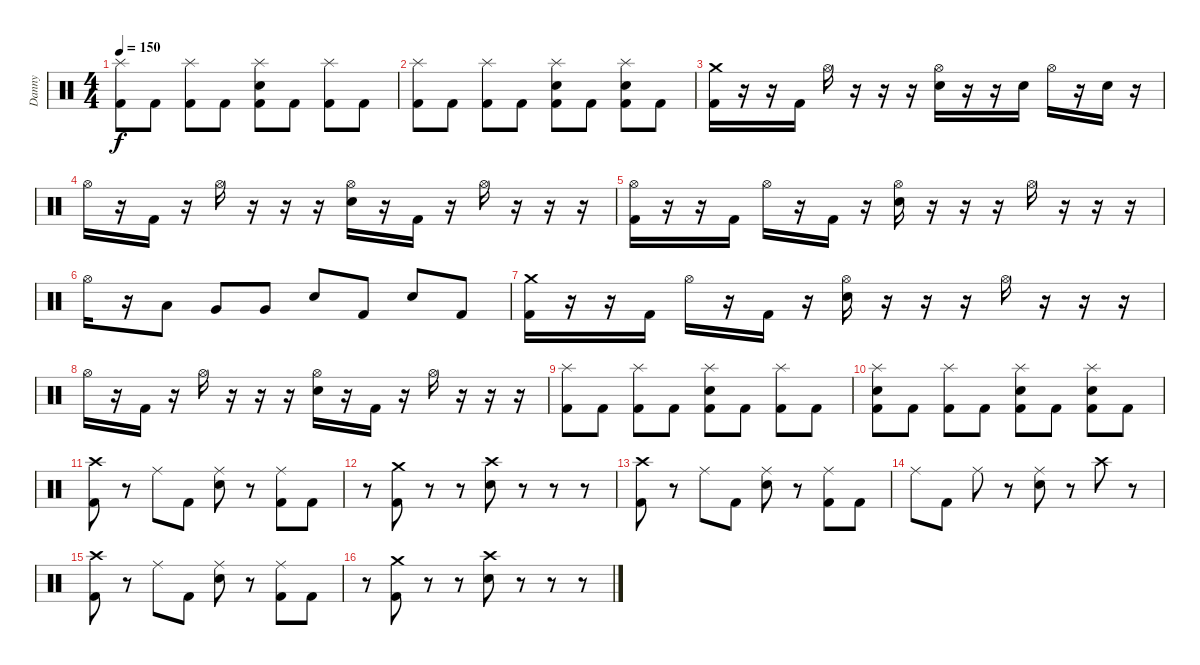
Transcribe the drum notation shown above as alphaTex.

\track ("Danny" "Danny") {instrument percussion}
\staff {score}
\articulation defaults
\ts (4 4)
\tempo 150
\clef neutral
\ks c
("Splash (hit)" "Kick (hit) 2").8{dy f} "Kick (hit) 2".8 ("Splash (hit)" "Kick (hit) 2").8 "Kick (hit) 2".8 ("Splash (hit)" "Electric Snare (hit)" "Kick (hit) 2").8 "Kick (hit) 2".8 ("Splash (hit)" "Kick (hit) 2").8 "Kick (hit) 2".8 |
("Splash (hit)" "Kick (hit) 2").8 "Kick (hit) 2".8 ("Splash (hit)" "Kick (hit) 2").8 "Kick (hit) 2".8 ("Splash (hit)" "Electric Snare (hit)" "Kick (hit) 2").8 "Kick (hit) 2".8 ("Splash (hit)" "Electric Snare (hit)" "Kick (hit) 2").8 "Kick (hit) 2".8 |
("Crash medium (hit)" "Kick (hit) 2").16 r.16 r.16 "Kick (hit) 2".16 "Hi-Hat (open)".16 r.16 r.16 r.16 ("Hi-Hat (open)" "Electric Snare (hit)").16 r.16 r.16 "Electric Snare (hit)".16 "Hi-Hat (open)".16 r.16 "Electric Snare (hit)".16 r.16 |
"Hi-Hat (open)".16 r.16 "Kick (hit) 2".16 r.16 "Hi-Hat (open)".16 r.16 r.16 r.16 ("Hi-Hat (open)" "Electric Snare (hit)").16 r.16 "Kick (hit) 2".16 r.16 "Hi-Hat (open)".16 r.16 r.16 r.16 |
("Hi-Hat (open)" "Kick (hit) 2").16 r.16 r.16 "Kick (hit) 2".16 "Hi-Hat (open)".16 r.16 "Kick (hit) 2".16 r.16 ("Hi-Hat (open)" "Electric Snare (hit)").16 r.16 r.16 r.16 "Hi-Hat (open)".16 r.16 r.16 r.16 |
"Hi-Hat (open)".16 r.16 "Low Tom (hit)".8 "Very Low Tom (hit)".8 "Very Low Tom (hit)".8 "Electric Snare (hit)".8 "Kick (hit) 2".8 "Electric Snare (hit)".8 "Kick (hit) 2".8 |
("Crash medium (hit)" "Kick (hit) 2").16 r.16 r.16 "Kick (hit) 2".16 "Hi-Hat (open)".16 r.16 "Kick (hit) 2".16 r.16 ("Hi-Hat (open)" "Electric Snare (hit)").16 r.16 r.16 r.16 "Hi-Hat (open)".16 r.16 r.16 r.16 |
"Hi-Hat (open)".16 r.16 "Kick (hit) 2".16 r.16 "Hi-Hat (open)".16 r.16 r.16 r.16 ("Hi-Hat (open)" "Electric Snare (hit)").16 r.16 "Kick (hit) 2".16 r.16 "Hi-Hat (open)".16 r.16 r.16 r.16 |
("Splash (hit)" "Kick (hit) 2").8 "Kick (hit) 2".8 ("Splash (hit)" "Kick (hit) 2").8 "Kick (hit) 2".8 ("Splash (hit)" "Electric Snare (hit)" "Kick (hit) 2").8 "Kick (hit) 2".8 ("Splash (hit)" "Kick (hit) 2").8 "Kick (hit) 2".8 |
("Splash (hit)" "Electric Snare (hit)" "Kick (hit) 2").8 "Kick (hit) 2".8 ("Splash (hit)" "Kick (hit) 2").8 "Kick (hit) 2".8 ("Splash (hit)" "Electric Snare (hit)" "Kick (hit) 2").8 "Kick (hit) 2".8 ("Splash (hit)" "Electric Snare (hit)" "Kick (hit) 2").8 "Kick (hit) 2".8 |
("Crash high (hit)" "Kick (hit) 2").8 r.8 "Ride (middle)".8 "Kick (hit) 2".8 ("Ride (middle)" "Electric Snare (hit)").8 r.8 ("Ride (middle)" "Kick (hit) 2").8 "Kick (hit) 2".8 |
r.8 ("Crash medium (hit)" "Kick (hit) 2").8 r.8 r.8 ("Crash high (hit)" "Electric Snare (hit)").8 r.8 r.8 r.8 |
("Crash high (hit)" "Kick (hit) 2").8 r.8 "Ride (middle)".8 "Kick (hit) 2".8 ("Ride (middle)" "Electric Snare (hit)").8 r.8 ("Ride (middle)" "Kick (hit) 2").8 "Kick (hit) 2".8 |
"Ride (middle)".8 "Kick (hit) 2".8 "Ride (middle)".8 r.8 ("Ride (middle)" "Electric Snare (hit)").8 r.8 "Crash high (hit)".8 r.8 |
("Crash high (hit)" "Kick (hit) 2").8 r.8 "Ride (middle)".8 "Kick (hit) 2".8 ("Ride (middle)" "Electric Snare (hit)").8 r.8 ("Ride (middle)" "Kick (hit) 2").8 "Kick (hit) 2".8 |
r.8 ("Crash medium (hit)" "Kick (hit) 2").8 r.8 r.8 ("Crash high (hit)" "Electric Snare (hit)").8 r.8 r.8 r.8
